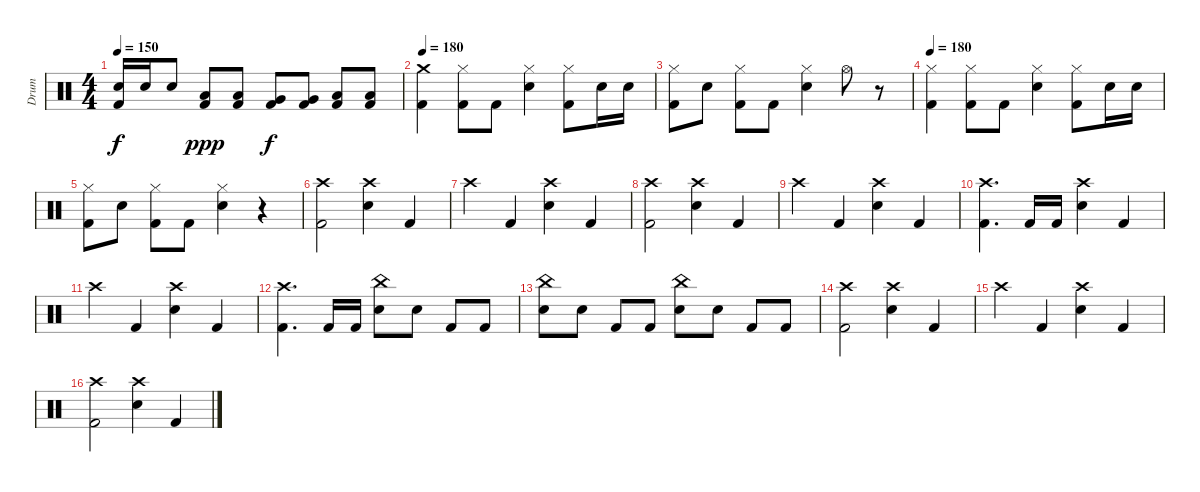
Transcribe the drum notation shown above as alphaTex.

\track ("Drum" "Drum") {instrument percussion}
\staff {score}
\articulation defaults
\ts (4 4)
\tempo 150
\clef neutral
\ks c
("Electric Snare (hit)" "Kick (hit) 2").16{dy f} "Electric Snare (hit)".16 "Electric Snare (hit)".8 ("Low Tom (hit)" "Kick (hit) 2").8{dy ppp} ("Low Tom (hit)" "Kick (hit) 2").8 ("Very Low Tom (hit)" "Kick (hit) 2").8{dy f} ("Very Low Tom (hit)" "Kick (hit) 2").8 ("Low Floor Tom (hit)" "Kick (hit) 2").8 ("Low Floor Tom (hit)" "Kick (hit) 2").8 |
\tempo 180
("Crash medium (hit)" "Kick (hit) 2").4 ("Hi-Hat (closed)" "Kick (hit) 2").8 "Kick (hit) 2".8 ("Hi-Hat (closed)" "Electric Snare (hit)").4 ("Hi-Hat (closed)" "Kick (hit) 2").8 "Electric Snare (hit)".16 "Electric Snare (hit)".16 |
("Hi-Hat (closed)" "Kick (hit) 2").8 "Electric Snare (hit)".8 ("Hi-Hat (closed)" "Kick (hit) 2").8 "Kick (hit) 2".8 ("Hi-Hat (closed)" "Electric Snare (hit)").4 "Hi-Hat (open)".8 r.8 |
\tempo 180
("Hi-Hat (closed)" "Kick (hit) 2").4 ("Hi-Hat (closed)" "Kick (hit) 2").8 "Kick (hit) 2".8 ("Hi-Hat (closed)" "Electric Snare (hit)").4 ("Hi-Hat (closed)" "Kick (hit) 2").8 "Electric Snare (hit)".16 "Electric Snare (hit)".16 |
("Hi-Hat (closed)" "Kick (hit) 2").8 "Electric Snare (hit)".8 ("Hi-Hat (closed)" "Kick (hit) 2").8 "Kick (hit) 2".8 ("Hi-Hat (closed)" "Electric Snare (hit)").4 r.4 |
("Crash high (hit)" "Kick (hit) 2").2 ("Crash high (hit)" "Electric Snare (hit)").4 "Kick (hit) 2".4 |
"Crash high (hit)".4 "Kick (hit) 2".4 ("Crash high (hit)" "Electric Snare (hit)").4 "Kick (hit) 2".4 |
("Crash high (hit)" "Kick (hit) 2").2 ("Crash high (hit)" "Electric Snare (hit)").4 "Kick (hit) 2".4 |
"Crash high (hit)".4 "Kick (hit) 2".4 ("Crash high (hit)" "Electric Snare (hit)").4 "Kick (hit) 2".4 |
("Crash high (hit)" "Kick (hit) 2").4{d} "Kick (hit) 2".16 "Kick (hit) 2".16 ("Crash high (hit)" "Electric Snare (hit)").4 "Kick (hit) 2".4 |
"Crash high (hit)".4 "Kick (hit) 2".4 ("Crash high (hit)" "Electric Snare (hit)").4 "Kick (hit) 2".4 |
("Crash high (hit)" "Kick (hit) 2").4{d} "Kick (hit) 2".16 "Kick (hit) 2".16 ("China (hit)" "Electric Snare (hit)").8 "Electric Snare (hit)".8 "Kick (hit) 2".8 "Kick (hit) 2".8 |
("China (hit)" "Electric Snare (hit)").8 "Electric Snare (hit)".8 "Kick (hit) 2".8 "Kick (hit) 2".8 ("China (hit)" "Electric Snare (hit)").8 "Electric Snare (hit)".8 "Kick (hit) 2".8 "Kick (hit) 2".8 |
("Crash high (hit)" "Kick (hit) 2").2 ("Crash high (hit)" "Electric Snare (hit)").4 "Kick (hit) 2".4 |
"Crash high (hit)".4 "Kick (hit) 2".4 ("Crash high (hit)" "Electric Snare (hit)").4 "Kick (hit) 2".4 |
("Crash high (hit)" "Kick (hit) 2").2 ("Crash high (hit)" "Electric Snare (hit)").4 "Kick (hit) 2".4
